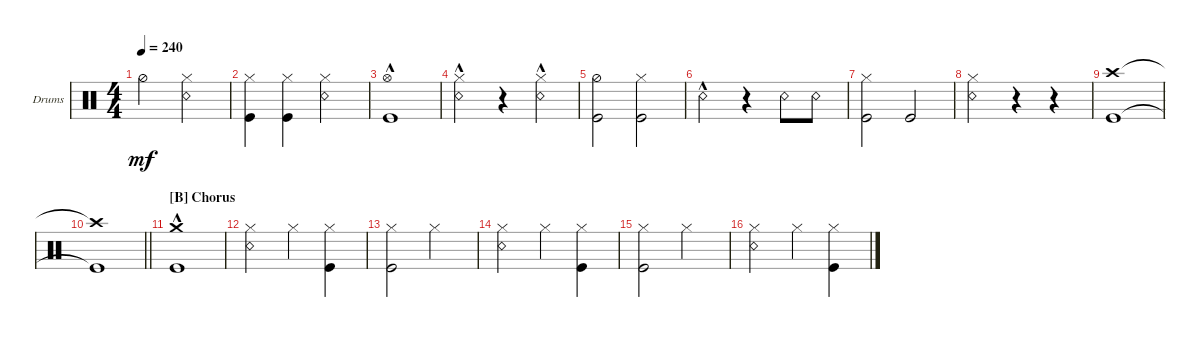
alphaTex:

\defaultSystemsLayout 4
\bracketExtendMode groupsimilarinstruments
\firstSystemTrackNameOrientation horizontal
\otherSystemsTrackNameOrientation horizontal
\track ("Drumkit" "Drums") {instrument percussion}
\staff {score}
\articulation defaults
\ts (4 4)
\tempo 240
\clef neutral
\ks c "Hi-Hat (half)".2{dy mf}
("Snare (rim shot)" "Hi-Hat (closed)").2 |
("Kick (hit)" "Hi-Hat (closed)").4 ("Kick (hit)" "Hi-Hat (closed)").4 ("Snare (rim shot)" "Hi-Hat (closed)").2 |
("Kick (hit)"{hac} "Hi-Hat (open)"{hac}).1 |
("Snare (rim shot)"{hac} "Hi-Hat (closed)").2 r.4 ("Snare (rim shot)"{hac} "Hi-Hat (closed)").4 |
("Kick (hit)" "Hi-Hat (half)").2 ("Kick (hit)" "Hi-Hat (closed)").2 |
"Snare (rim shot)"{hac}.2 r.4 "Snare (rim shot)".8 "Snare (rim shot)".8 |
("Kick (hit)" "Hi-Hat (closed)").2 "Kick (hit)".2 |
("Snare (rim shot)" "Hi-Hat (closed)").2 r.4 r.4 |
("Crash high (hit)" "Kick (hit)").1 |
\barLineRight lightlight
("Crash high (hit)"{t} "Kick (hit)"{t}).1 |
\section ("B" "Chorus")
("Crash medium (hit)"{hac} "Kick (hit)"{hac}).1 |
("Snare (rim shot)" "Hi-Hat (closed)").2 "Hi-Hat (closed)".4 ("Kick (hit)" "Hi-Hat (closed)").4 |
("Kick (hit)" "Hi-Hat (closed)").2 "Hi-Hat (closed)".2 |
("Snare (rim shot)" "Hi-Hat (closed)").2 "Hi-Hat (closed)".4 ("Kick (hit)" "Hi-Hat (closed)").4 |
("Kick (hit)" "Hi-Hat (closed)").2 "Hi-Hat (closed)".2 |
("Snare (rim shot)" "Hi-Hat (closed)").2 "Hi-Hat (closed)".4 ("Kick (hit)" "Hi-Hat (closed)").4
